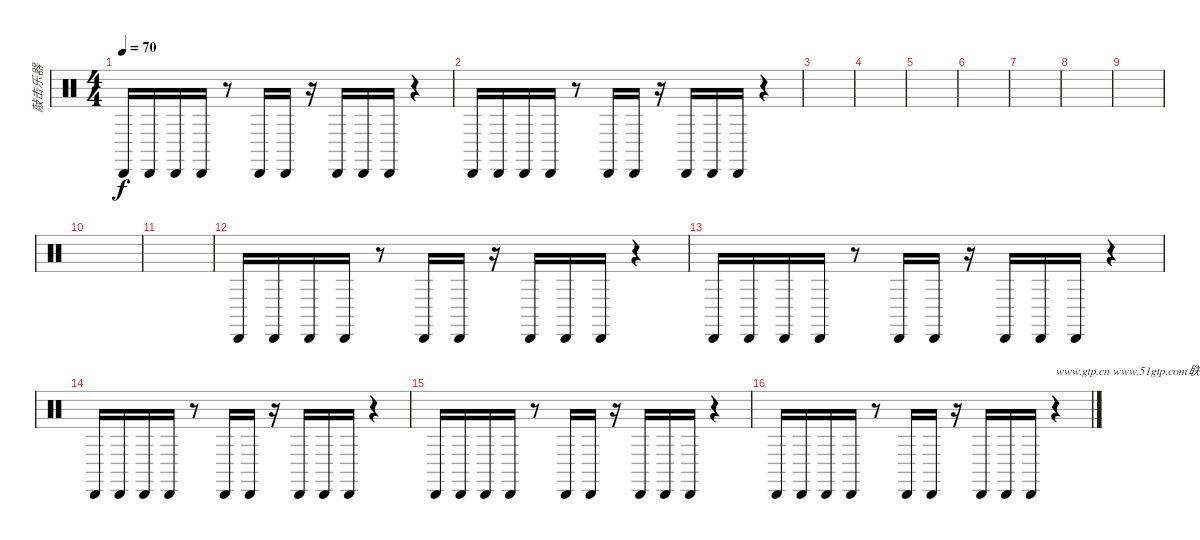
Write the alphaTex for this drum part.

\track ("敲击乐器" "敲击乐器") {instrument percussion}
\staff {score}
\articulation defaults
\ts (4 4)
\tempo 70
\clef neutral
\ks c "Cabasa (hit)".16{dy f} "Cabasa (hit)".16 "Cabasa (hit)".16 "Cabasa (hit)".16
r.8 "Cabasa (hit)".16 "Cabasa (hit)".16 r.16 "Cabasa (hit)".16 "Cabasa (hit)".16 "Cabasa (hit)".16 r.4 |
"Cabasa (hit)".16 "Cabasa (hit)".16 "Cabasa (hit)".16 "Cabasa (hit)".16 r.8 "Cabasa (hit)".16 "Cabasa (hit)".16 r.16 "Cabasa (hit)".16 "Cabasa (hit)".16 "Cabasa (hit)".16 r.4 |
|
|
|
|
|
|
|
|
|
"Cabasa (hit)".16 "Cabasa (hit)".16 "Cabasa (hit)".16 "Cabasa (hit)".16 r.8 "Cabasa (hit)".16 "Cabasa (hit)".16 r.16 "Cabasa (hit)".16 "Cabasa (hit)".16 "Cabasa (hit)".16 r.4 |
"Cabasa (hit)".16 "Cabasa (hit)".16 "Cabasa (hit)".16 "Cabasa (hit)".16 r.8 "Cabasa (hit)".16 "Cabasa (hit)".16 r.16 "Cabasa (hit)".16 "Cabasa (hit)".16 "Cabasa (hit)".16 r.4 |
"Cabasa (hit)".16 "Cabasa (hit)".16 "Cabasa (hit)".16 "Cabasa (hit)".16 r.8 "Cabasa (hit)".16 "Cabasa (hit)".16 r.16 "Cabasa (hit)".16 "Cabasa (hit)".16 "Cabasa (hit)".16 r.4 |
"Cabasa (hit)".16 "Cabasa (hit)".16 "Cabasa (hit)".16 "Cabasa (hit)".16 r.8 "Cabasa (hit)".16 "Cabasa (hit)".16 r.16 "Cabasa (hit)".16 "Cabasa (hit)".16 "Cabasa (hit)".16 r.4 |
"Cabasa (hit)".16 "Cabasa (hit)".16 "Cabasa (hit)".16 "Cabasa (hit)".16 r.8 "Cabasa (hit)".16 "Cabasa (hit)".16 r.16 "Cabasa (hit)".16 "Cabasa (hit)".16 "Cabasa (hit)".16 r.4{txt "www.gtp.cn www.51gtp.com联合为您提供优秀的GTP!"}
